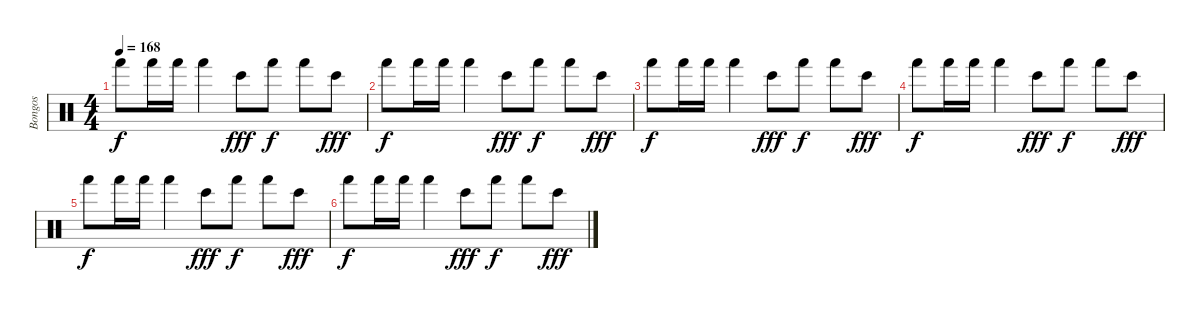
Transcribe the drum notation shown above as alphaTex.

\track ("Bongos" "Bongos") {instrument percussion}
\staff {score}
\articulation defaults
\ts (4 4)
\tempo 168
\clef neutral
\ks c "Hand (hit)".8{dy f} "Hand (hit)".16 "Hand (hit)".16 "Hand (hit)".4 "Bongo High (hit)".8{dy fff} "Hand (hit)".8{dy f} "Hand (hit)".8 "Bongo High (hit)".8{dy fff}
|
"Hand (hit)".8{dy f} "Hand (hit)".16 "Hand (hit)".16 "Hand (hit)".4 "Bongo High (hit)".8{dy fff} "Hand (hit)".8{dy f} "Hand (hit)".8 "Bongo High (hit)".8{dy fff} |
"Hand (hit)".8{dy f} "Hand (hit)".16 "Hand (hit)".16 "Hand (hit)".4 "Bongo High (hit)".8{dy fff} "Hand (hit)".8{dy f} "Hand (hit)".8 "Bongo High (hit)".8{dy fff} |
"Hand (hit)".8{dy f} "Hand (hit)".16 "Hand (hit)".16 "Hand (hit)".4 "Bongo High (hit)".8{dy fff} "Hand (hit)".8{dy f} "Hand (hit)".8 "Bongo High (hit)".8{dy fff} |
"Hand (hit)".8{dy f} "Hand (hit)".16 "Hand (hit)".16 "Hand (hit)".4 "Bongo High (hit)".8{dy fff} "Hand (hit)".8{dy f} "Hand (hit)".8 "Bongo High (hit)".8{dy fff} |
"Hand (hit)".8{dy f} "Hand (hit)".16 "Hand (hit)".16 "Hand (hit)".4 "Bongo High (hit)".8{dy fff} "Hand (hit)".8{dy f} "Hand (hit)".8 "Bongo High (hit)".8{dy fff}
